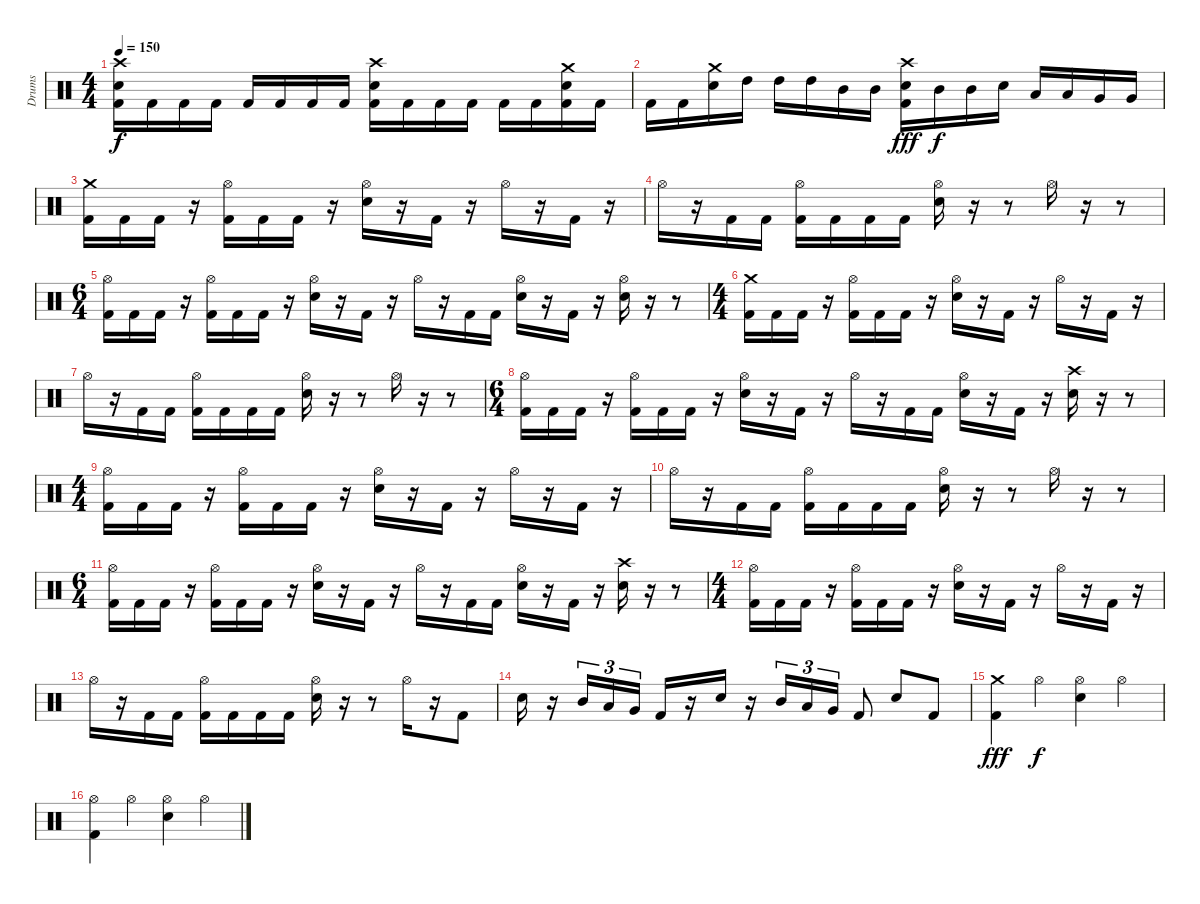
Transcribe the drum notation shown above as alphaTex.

\track ("Drums" "Drums") {instrument percussion}
\staff {score}
\articulation defaults
\ts (4 4)
\tempo 150
\clef neutral
\ks c
("Crash high (hit)" "Electric Snare (hit)" "Kick (hit) 2").16{dy f} "Kick (hit) 2".16 "Kick (hit) 2".16 "Kick (hit) 2".16 "Kick (hit) 2".16 "Kick (hit) 2".16 "Kick (hit) 2".16 "Kick (hit) 2".16 ("Crash high (hit)" "Electric Snare (hit)" "Kick (hit) 2").16 "Kick (hit) 2".16 "Kick (hit) 2".16 "Kick (hit) 2".16 "Kick (hit) 2".16 "Kick (hit) 2".16 ("Crash medium (hit)" "Electric Snare (hit)" "Kick (hit) 2").16 "Kick (hit) 2".16 |
"Kick (hit) 2".16 "Kick (hit) 2".16 ("Crash medium (hit)" "Electric Snare (hit)").16 "High Tom (hit)".16 "High Tom (hit)".16 "High Tom (hit)".16 "Mid Tom (hit)".16 "Mid Tom (hit)".16 ("Crash high (hit)" "Electric Snare (hit)" "Kick (hit) 2").16{dy fff} "Mid Tom (hit)".16{dy f} "Mid Tom (hit)".16 "Electric Snare (hit)".16 "Low Tom (hit)".16 "Low Tom (hit)".16 "Very Low Tom (hit)".16 "Very Low Tom (hit)".16 |
("Crash medium (hit)" "Kick (hit) 2").16 "Kick (hit) 2".16 "Kick (hit) 2".16 r.16 ("Hi-Hat (open)" "Kick (hit) 2").16 "Kick (hit) 2".16 "Kick (hit) 2".16 r.16 ("Hi-Hat (open)" "Electric Snare (hit)").16 r.16 "Kick (hit) 2".16 r.16 "Hi-Hat (open)".16 r.16 "Kick (hit) 2".16 r.16 |
"Hi-Hat (open)".16 r.16 "Kick (hit) 2".16 "Kick (hit) 2".16 ("Hi-Hat (open)" "Kick (hit) 2").16 "Kick (hit) 2".16 "Kick (hit) 2".16 "Kick (hit) 2".16 ("Hi-Hat (open)" "Electric Snare (hit)").16 r.16 r.8 "Hi-Hat (open)".16 r.16 r.8 |
\ts (6 4)
("Hi-Hat (open)" "Kick (hit) 2").16 "Kick (hit) 2".16 "Kick (hit) 2".16 r.16 ("Hi-Hat (open)" "Kick (hit) 2").16 "Kick (hit) 2".16 "Kick (hit) 2".16 r.16 ("Hi-Hat (open)" "Electric Snare (hit)").16 r.16 "Kick (hit) 2".16 r.16 "Hi-Hat (open)".16 r.16 "Kick (hit) 2".16 "Kick (hit) 2".16 ("Hi-Hat (open)" "Electric Snare (hit)").16 r.16 "Kick (hit) 2".16 r.16 ("Hi-Hat (open)" "Electric Snare (hit)").16 r.16 r.8 |
\ts (4 4)
("Crash medium (hit)" "Kick (hit) 2").16 "Kick (hit) 2".16 "Kick (hit) 2".16 r.16 ("Hi-Hat (open)" "Kick (hit) 2").16 "Kick (hit) 2".16 "Kick (hit) 2".16 r.16 ("Hi-Hat (open)" "Electric Snare (hit)").16 r.16 "Kick (hit) 2".16 r.16 "Hi-Hat (open)".16 r.16 "Kick (hit) 2".16 r.16 |
"Hi-Hat (open)".16 r.16 "Kick (hit) 2".16 "Kick (hit) 2".16 ("Hi-Hat (open)" "Kick (hit) 2").16 "Kick (hit) 2".16 "Kick (hit) 2".16 "Kick (hit) 2".16 ("Hi-Hat (open)" "Electric Snare (hit)").16 r.16 r.8 "Hi-Hat (open)".16 r.16 r.8 |
\ts (6 4)
("Hi-Hat (open)" "Kick (hit) 2").16 "Kick (hit) 2".16 "Kick (hit) 2".16 r.16 ("Hi-Hat (open)" "Kick (hit) 2").16 "Kick (hit) 2".16 "Kick (hit) 2".16 r.16 ("Hi-Hat (open)" "Electric Snare (hit)").16 r.16 "Kick (hit) 2".16 r.16 "Hi-Hat (open)".16 r.16 "Kick (hit) 2".16 "Kick (hit) 2".16 ("Hi-Hat (open)" "Electric Snare (hit)").16 r.16 "Kick (hit) 2".16 r.16 ("Crash high (hit)" "Electric Snare (hit)").16 r.16 r.8 |
\ts (4 4)
("Hi-Hat (open)" "Kick (hit) 2").16 "Kick (hit) 2".16 "Kick (hit) 2".16 r.16 ("Hi-Hat (open)" "Kick (hit) 2").16 "Kick (hit) 2".16 "Kick (hit) 2".16 r.16 ("Hi-Hat (open)" "Electric Snare (hit)").16 r.16 "Kick (hit) 2".16 r.16 "Hi-Hat (open)".16 r.16 "Kick (hit) 2".16 r.16 |
"Hi-Hat (open)".16 r.16 "Kick (hit) 2".16 "Kick (hit) 2".16 ("Hi-Hat (open)" "Kick (hit) 2").16 "Kick (hit) 2".16 "Kick (hit) 2".16 "Kick (hit) 2".16 ("Hi-Hat (open)" "Electric Snare (hit)").16 r.16 r.8 "Hi-Hat (open)".16 r.16 r.8 |
\ts (6 4)
("Hi-Hat (open)" "Kick (hit) 2").16 "Kick (hit) 2".16 "Kick (hit) 2".16 r.16 ("Hi-Hat (open)" "Kick (hit) 2").16 "Kick (hit) 2".16 "Kick (hit) 2".16 r.16 ("Hi-Hat (open)" "Electric Snare (hit)").16 r.16 "Kick (hit) 2".16 r.16 "Hi-Hat (open)".16 r.16 "Kick (hit) 2".16 "Kick (hit) 2".16 ("Hi-Hat (open)" "Electric Snare (hit)").16 r.16 "Kick (hit) 2".16 r.16 ("Crash high (hit)" "Electric Snare (hit)").16 r.16 r.8 |
\ts (4 4)
("Hi-Hat (open)" "Kick (hit) 2").16 "Kick (hit) 2".16 "Kick (hit) 2".16 r.16 ("Hi-Hat (open)" "Kick (hit) 2").16 "Kick (hit) 2".16 "Kick (hit) 2".16 r.16 ("Hi-Hat (open)" "Electric Snare (hit)").16 r.16 "Kick (hit) 2".16 r.16 "Hi-Hat (open)".16 r.16 "Kick (hit) 2".16 r.16 |
"Hi-Hat (open)".16 r.16 "Kick (hit) 2".16 "Kick (hit) 2".16 ("Hi-Hat (open)" "Kick (hit) 2").16 "Kick (hit) 2".16 "Kick (hit) 2".16 "Kick (hit) 2".16 ("Hi-Hat (open)" "Electric Snare (hit)").16 r.16 r.8 "Hi-Hat (open)".16 r.16 "Kick (hit) 2".8 |
"Electric Snare (hit)".16 r.16 "Mid Tom (hit)".16{tu (3 2)} "Low Tom (hit)".16{tu (3 2)} "Very Low Tom (hit)".16{tu (3 2)} "Kick (hit) 2".16 r.16 "Electric Snare (hit)".16 r.16 "Mid Tom (hit)".16{tu (3 2)} "Low Tom (hit)".16{tu (3 2)} "Very Low Tom (hit)".16{tu (3 2)} "Kick (hit) 2".8 "Electric Snare (hit)".8 "Kick (hit) 2".8 |
("Crash medium (hit)" "Kick (hit) 2").4{dy fff} "Hi-Hat (open)".4{dy f} ("Hi-Hat (open)" "Electric Snare (hit)").4 "Hi-Hat (open)".4 |
("Hi-Hat (open)" "Kick (hit) 2").4 "Hi-Hat (open)".4 ("Hi-Hat (open)" "Electric Snare (hit)").4 "Hi-Hat (open)".4
